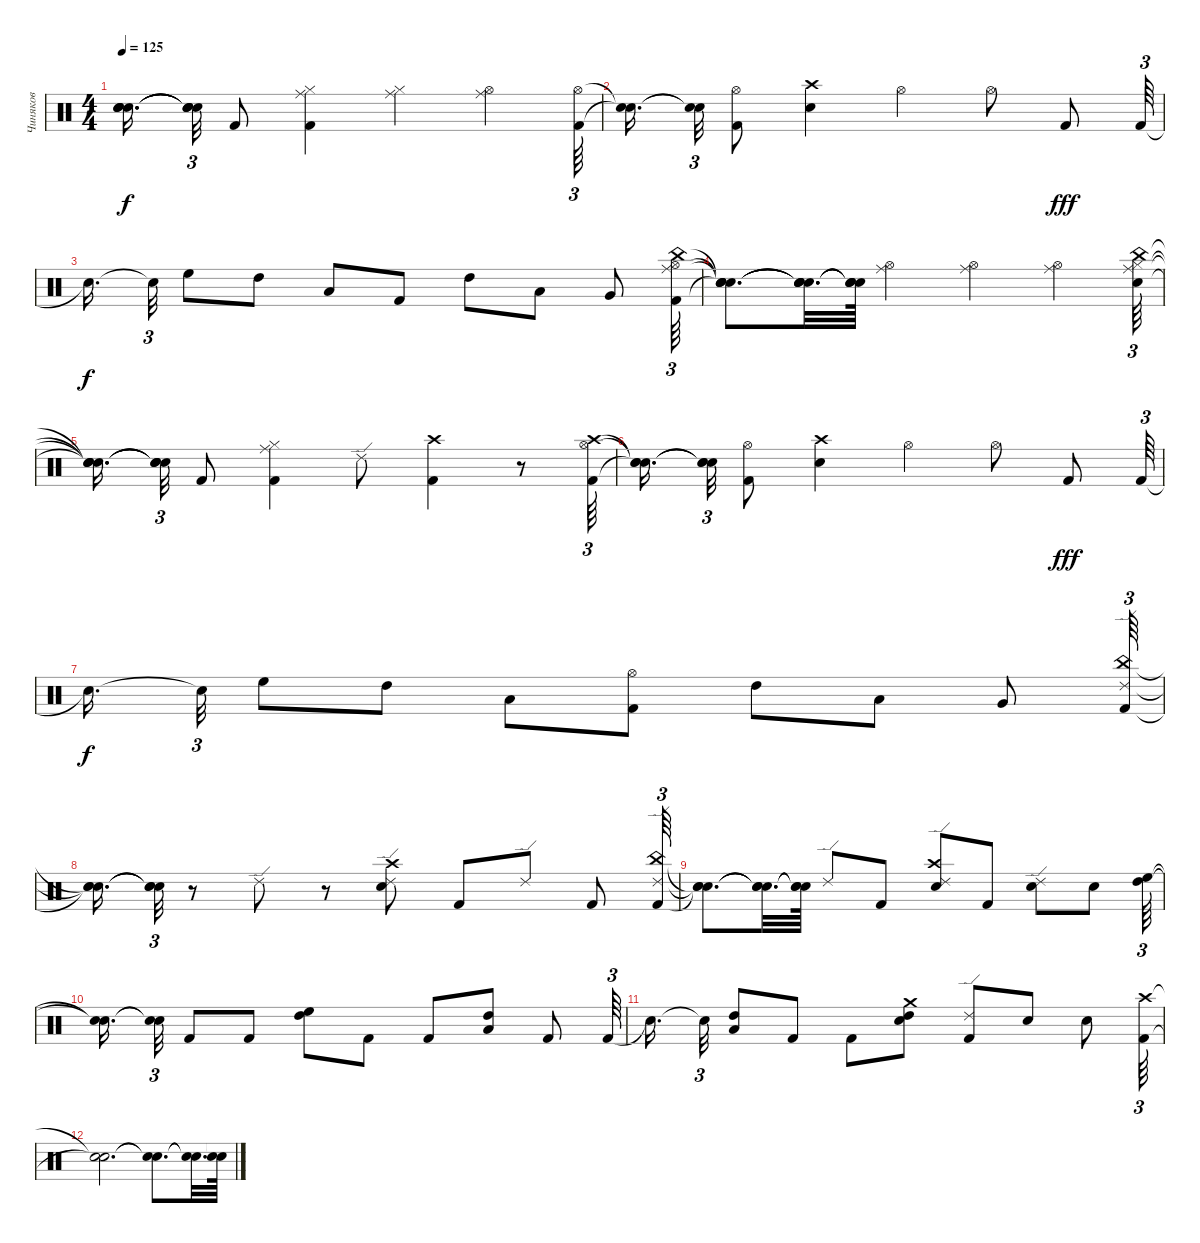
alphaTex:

\track ("Чиняков" "Чиняков") {instrument percussion}
\staff {score}
\articulation defaults
\ts (4 4)
\tempo 125
\clef neutral
\ks c
("Snare (hit)"{t} "Snare (hit)"{t} "Snare (hit)"{t} "Snare (hit)"{t}).16{d dy f beam splitsecondary} ("Snare (hit)"{t} "Snare (hit)"{t} "Snare (hit)"{t} "Snare (hit)"{t}).32{tu (3 2)} "Kick (hit) 2".8 ("Kick (hit) 2" "Hi-Hat (closed)" "Ride (middle)").4 ("Hi-Hat (closed)" "Ride (middle)").4 ("Hi-Hat (open)" "Ride (middle)").4 ("Kick (hit) 2" "Hi-Hat (open)").64{tu (3 2)} |
("Snare (hit)"{t} "Snare (hit)"{t}).16{d beam splitsecondary} ("Snare (hit)"{t} "Snare (hit)"{t}).32{tu (3 2)} ("Kick (hit) 2" "Hi-Hat (open)").8 ("Electric Snare (hit)" "Crash high (hit)").4 "Hi-Hat (open)".4 "Hi-Hat (open)".8 "Kick (hit) 2".8{dy fff} "Kick (hit) 2".64{tu (3 2)} |
"Snare (hit)"{t}.16{d dy f beam splitsecondary} "Snare (hit)"{t}.32{tu (3 2)} "High Floor Tom (hit)".8 "High Tom (hit)".8 "Low Tom (hit)".8 "Kick (hit) 2".8 "High Tom (hit)".8 "Low Tom (hit)".8 "Very Low Tom (hit)".8 ("Kick (hit) 2" "China (hit)" "Hi-Hat (open)" "Ride (middle)").64{tu (3 2)} |
("Snare (hit)"{t} "Snare (hit)"{t} "Snare (hit)"{t} "Snare (hit)"{t}).8{d} ("Snare (hit)"{t} "Snare (hit)"{t} "Snare (hit)"{t} "Snare (hit)"{t}).32{d} ("Snare (hit)"{t} "Snare (hit)"{t} "Snare (hit)"{t} "Snare (hit)"{t}).64 ("Hi-Hat (open)" "Ride (middle)").4 ("Hi-Hat (open)" "Ride (middle)").4 ("Hi-Hat (open)" "Ride (middle)").4 ("Electric Snare (hit)" "China (hit)" "Hi-Hat (closed)" "Ride (middle)").64{tu (3 2)} |
("Snare (hit)"{t} "Snare (hit)"{t} "Snare (hit)"{t} "Snare (hit)"{t}).16{d beam splitsecondary} ("Snare (hit)"{t} "Snare (hit)"{t} "Snare (hit)"{t} "Snare (hit)"{t}).32{tu (3 2)} "Kick (hit) 2".8 ("Kick (hit) 2" "Hi-Hat (closed)" "Ride (middle)").4 "Ride (edge) 2".8 ("Crash high (hit)" "Kick (hit) 2").4 r.8 ("Kick (hit) 2" "Hi-Hat (open)" "Crash high (hit)").64{tu (3 2)} |
("Snare (hit)"{t} "Snare (hit)"{t} "Snare (hit)"{t}).16{d beam splitsecondary} ("Snare (hit)"{t} "Snare (hit)"{t} "Snare (hit)"{t}).32{tu (3 2)} ("Kick (hit) 2" "Hi-Hat (open)").8 ("Electric Snare (hit)" "Crash high (hit)").4 "Hi-Hat (open)".4 "Hi-Hat (open)".8 "Kick (hit) 2".8{dy fff} "Kick (hit) 2".64{tu (3 2)} |
"Snare (hit)"{t}.16{d dy f beam splitsecondary} "Snare (hit)"{t}.32{tu (3 2)} "High Floor Tom (hit)".8 "High Tom (hit)".8 "Low Tom (hit)".8 ("Kick (hit) 2" "Hi-Hat (open)").8 "High Tom (hit)".8 "Low Tom (hit)".8 "Very Low Tom (hit)".8 ("Kick (hit) 2" "China (hit)" "Ride (edge) 2").64{tu (3 2)} |
("Snare (hit)"{t} "Snare (hit)"{t} "Snare (hit)"{t}).16{d} ("Snare (hit)"{t} "Snare (hit)"{t} "Snare (hit)"{t}).32{tu (3 2)} r.8 "Ride (edge) 2".8 r.8 ("Ride (edge) 2" "Electric Snare (hit)" "Crash high (hit)").8 "Kick (hit) 2".8 "Ride (edge) 2".8 "Kick (hit) 2".8 ("Kick (hit) 2" "China (hit)" "Ride (edge) 2").64{tu (3 2)} |
("Snare (hit)"{t} "Snare (hit)"{t} "Snare (hit)"{t}).8{d} ("Snare (hit)"{t} "Snare (hit)"{t} "Snare (hit)"{t}).32{d} ("Snare (hit)"{t} "Snare (hit)"{t} "Snare (hit)"{t}).64 "Ride (edge) 2".8 "Kick (hit) 2".8 ("Electric Snare (hit)" "Crash high (hit)" "Ride (edge) 2").8 "Kick (hit) 2".8 ("Electric Snare (hit)" "Ride (edge) 2").8 "Electric Snare (hit)".8 ("High Floor Tom (hit)" "High Tom (hit)").64{tu (3 2)} |
("Snare (hit)"{t} "Snare (hit)"{t}).16{d beam splitsecondary} ("Snare (hit)"{t} "Snare (hit)"{t}).32{tu (3 2)} "Kick (hit) 2".8 "Kick (hit) 2".8 ("High Floor Tom (hit)" "High Tom (hit)").8 "Kick (hit) 2".8 "Kick (hit) 2".8 ("High Tom (hit)" "Low Tom (hit)").8 "Kick (hit) 2".8 "Kick (hit) 2".64{tu (3 2)} |
"Snare (hit)"{t}.16{d beam splitsecondary} "Snare (hit)"{t}.32{tu (3 2)} ("High Tom (hit)" "Low Floor Tom (hit)").8 "Kick (hit) 2".8 "Kick (hit) 2".8 ("Electric Snare (hit)" "Crash medium (hit)" "High Tom (hit)").8 ("Kick (hit) 2" "Ride (edge) 2").8 "Electric Snare (hit)".8 "Electric Snare (hit)".8 ("Kick (hit) 2" "Crash high (hit)").64{tu (3 2)} |
("Snare (hit)"{t} "Snare (hit)"{t}).2{d} ("Snare (hit)"{t} "Snare (hit)"{t}).8{d} ("Snare (hit)"{t} "Snare (hit)"{t}).32{d} ("Snare (hit)"{t} "Snare (hit)"{t}).64
